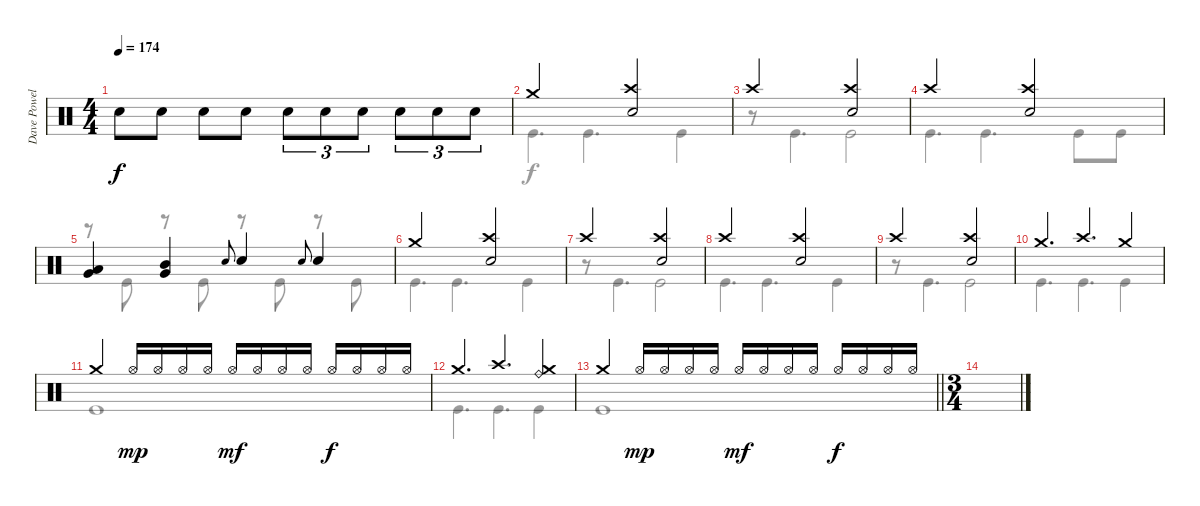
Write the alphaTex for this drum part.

\track ("Dave Powell" "Dave Powel") {instrument percussion}
\staff {score}
\articulation defaults
\voice
\ts (4 4)
\tempo 174
\clef neutral
\ks c "Electric Snare (hit)".8{dy f} "Electric Snare (hit)".8 "Electric Snare (hit)".8 "Electric Snare (hit)".8 "Electric Snare (hit)".8{tu (3 2)} "Electric Snare (hit)".8{tu (3 2)} "Electric Snare (hit)".8{tu (3 2)} "Electric Snare (hit)".8{tu (3 2)} "Electric Snare (hit)".8{tu (3 2)} "Electric Snare (hit)".8{tu (3 2)}
|
"Crash medium (hit)".2 ("Crash high (hit)" "Electric Snare (hit)").2 |
"Crash high (hit)".2 ("Crash high (hit)" "Electric Snare (hit)").2 |
"Crash high (hit)".2 ("Crash high (hit)" "Electric Snare (hit)").2 |
("Low Tom (hit)" "Very Low Tom (hit)").4 ("Mid Tom (hit)" "Very Low Tom (hit)").4 "Electric Snare (hit)".8{gr onbeat} "Electric Snare (hit)".4 "Electric Snare (hit)".8{gr onbeat} "Electric Snare (hit)".4 |
"Crash medium (hit)".2 ("Crash high (hit)" "Electric Snare (hit)").2 |
"Crash high (hit)".2 ("Crash high (hit)" "Electric Snare (hit)").2 |
"Crash high (hit)".2 ("Crash high (hit)" "Electric Snare (hit)").2 |
"Crash high (hit)".2 ("Crash high (hit)" "Electric Snare (hit)").2 |
"Crash medium (hit)".4{d} "Crash high (hit)".4{d} "Crash medium (hit)".4 |
"Crash medium (hit)".4 "Hi-Hat (open)".16{dy mp} "Hi-Hat (open)".16 "Hi-Hat (open)".16 "Hi-Hat (open)".16 "Hi-Hat (open)".16{dy mf} "Hi-Hat (open)".16 "Hi-Hat (open)".16 "Hi-Hat (open)".16 "Hi-Hat (open)".16{dy f} "Hi-Hat (open)".16 "Hi-Hat (open)".16 "Hi-Hat (open)".16 |
"Crash medium (hit)".4{d} "Crash high (hit)".4{d} ("Crash medium (hit)" "Ride (bell)").4 |
\barLineRight lightlight "Crash medium (hit)".4 "Hi-Hat (open)".16{dy mp} "Hi-Hat (open)".16 "Hi-Hat (open)".16 "Hi-Hat (open)".16 "Hi-Hat (open)".16{dy mf} "Hi-Hat (open)".16 "Hi-Hat (open)".16 "Hi-Hat (open)".16 "Hi-Hat (open)".16{dy f} "Hi-Hat (open)".16 "Hi-Hat (open)".16 "Hi-Hat (open)".16
|
\ts (3 4)
\section ("" "")
|
|
\voice
\clef neutral
\ottava regular
\simile none
\ks c
|
"Kick (hit)".4{d} "Kick (hit)".4{d} "Kick (hit)".4 |
r.8 "Kick (hit)".4{d} "Kick (hit)".2 |
"Kick (hit)".4{d} "Kick (hit)".4{d} "Kick (hit)".8 "Kick (hit)".8 |
r.8 "Kick (hit)".8 r.8 "Kick (hit)".8 r.8 "Kick (hit)".8 r.8 "Kick (hit)".8 |
"Kick (hit)".4{d} "Kick (hit)".4{d} "Kick (hit)".4 |
r.8 "Kick (hit)".4{d} "Kick (hit)".2 |
"Kick (hit)".4{d} "Kick (hit)".4{d} "Kick (hit)".4 |
r.8 "Kick (hit)".4{d} "Kick (hit)".2 |
"Kick (hit)".4{d} "Kick (hit)".4{d} "Kick (hit)".4 |
"Kick (hit)".1 |
"Kick (hit)".4{d} "Kick (hit)".4{d} "Kick (hit)".4 |
\barLineRight lightlight "Kick (hit)".1
|
|
|
